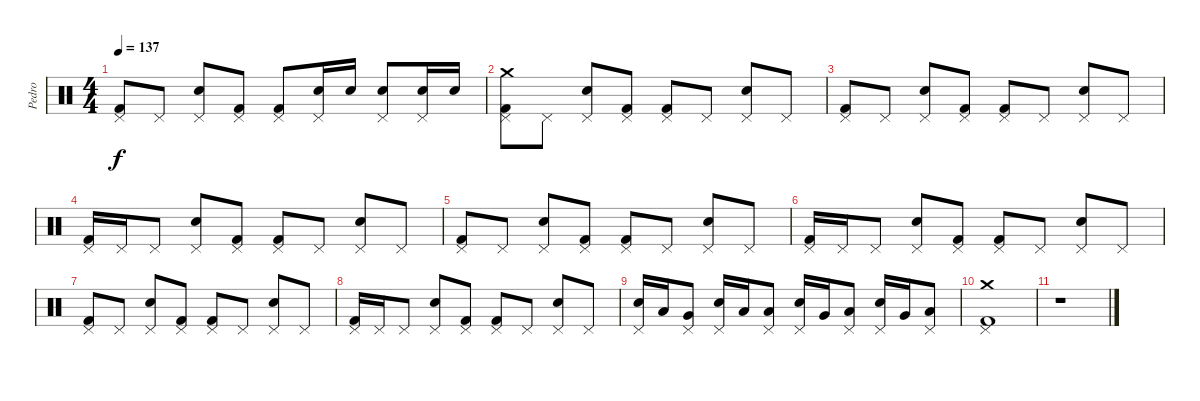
\track ("Pedro" "Pedro") {instrument percussion}
\staff {score}
\articulation defaults
\ts (4 4)
\tempo 137
\clef neutral
\ks c
("Kick (hit) 2" "Pedal Hi-Hat (hit)").8{dy f} "Pedal Hi-Hat (hit)".8 ("Snare (hit) 2" "Pedal Hi-Hat (hit)").8 ("Kick (hit) 2" "Pedal Hi-Hat (hit)").8 ("Kick (hit) 2" "Pedal Hi-Hat (hit)").8 ("Snare (hit) 2" "Pedal Hi-Hat (hit)").16 "Snare (hit) 2".16 ("Snare (hit) 2" "Pedal Hi-Hat (hit)").8 ("Snare (hit) 2" "Pedal Hi-Hat (hit)").16 "Snare (hit) 2".16 |
("Crash medium (hit)" "Pedal Hi-Hat (hit)" "Kick (hit) 2").8 "Pedal Hi-Hat (hit)".8 ("Pedal Hi-Hat (hit)" "Snare (hit) 2").8 ("Pedal Hi-Hat (hit)" "Kick (hit) 2").8 ("Pedal Hi-Hat (hit)" "Kick (hit) 2").8 "Pedal Hi-Hat (hit)".8 ("Pedal Hi-Hat (hit)" "Snare (hit) 2").8 "Pedal Hi-Hat (hit)".8 |
("Pedal Hi-Hat (hit)" "Kick (hit) 2").8 "Pedal Hi-Hat (hit)".8 ("Pedal Hi-Hat (hit)" "Snare (hit) 2").8 ("Pedal Hi-Hat (hit)" "Kick (hit) 2").8 ("Pedal Hi-Hat (hit)" "Kick (hit) 2").8 "Pedal Hi-Hat (hit)".8 ("Pedal Hi-Hat (hit)" "Snare (hit) 2").8 "Pedal Hi-Hat (hit)".8 |
("Pedal Hi-Hat (hit)" "Kick (hit) 2").16 "Pedal Hi-Hat (hit)".16 "Pedal Hi-Hat (hit)".8 ("Pedal Hi-Hat (hit)" "Snare (hit) 2").8 ("Pedal Hi-Hat (hit)" "Kick (hit) 2").8 ("Pedal Hi-Hat (hit)" "Kick (hit) 2").8 "Pedal Hi-Hat (hit)".8 ("Pedal Hi-Hat (hit)" "Snare (hit) 2").8 "Pedal Hi-Hat (hit)".8 |
("Pedal Hi-Hat (hit)" "Kick (hit) 2").8 "Pedal Hi-Hat (hit)".8 ("Pedal Hi-Hat (hit)" "Snare (hit) 2").8 ("Pedal Hi-Hat (hit)" "Kick (hit) 2").8 ("Pedal Hi-Hat (hit)" "Kick (hit) 2").8 "Pedal Hi-Hat (hit)".8 ("Pedal Hi-Hat (hit)" "Snare (hit) 2").8 "Pedal Hi-Hat (hit)".8 |
("Pedal Hi-Hat (hit)" "Kick (hit) 2").16 "Pedal Hi-Hat (hit)".16 "Pedal Hi-Hat (hit)".8 ("Pedal Hi-Hat (hit)" "Snare (hit) 2").8 ("Pedal Hi-Hat (hit)" "Kick (hit) 2").8 ("Pedal Hi-Hat (hit)" "Kick (hit) 2").8 "Pedal Hi-Hat (hit)".8 ("Pedal Hi-Hat (hit)" "Snare (hit) 2").8 "Pedal Hi-Hat (hit)".8 |
("Kick (hit) 2" "Pedal Hi-Hat (hit)").8 "Pedal Hi-Hat (hit)".8 ("Snare (hit) 2" "Pedal Hi-Hat (hit)").8 ("Kick (hit) 2" "Pedal Hi-Hat (hit)").8 ("Kick (hit) 2" "Pedal Hi-Hat (hit)").8 "Pedal Hi-Hat (hit)".8 ("Snare (hit) 2" "Pedal Hi-Hat (hit)").8 "Pedal Hi-Hat (hit)".8 |
("Pedal Hi-Hat (hit)" "Kick (hit) 2").16 "Pedal Hi-Hat (hit)".16 "Pedal Hi-Hat (hit)".8 ("Pedal Hi-Hat (hit)" "Snare (hit) 2").8 ("Pedal Hi-Hat (hit)" "Kick (hit) 2").8 ("Pedal Hi-Hat (hit)" "Kick (hit) 2").8 "Pedal Hi-Hat (hit)".8 ("Pedal Hi-Hat (hit)" "Snare (hit) 2").8 "Pedal Hi-Hat (hit)".8 |
("Snare (hit) 2" "Pedal Hi-Hat (hit)").16 "Low Tom (hit)".16 ("Very Low Tom (hit)" "Pedal Hi-Hat (hit)").8 ("Snare (hit) 2" "Pedal Hi-Hat (hit)").16 "Low Tom (hit)".16 ("Low Floor Tom (hit)" "Pedal Hi-Hat (hit)").8 ("Snare (hit) 2" "Pedal Hi-Hat (hit)").16 "Very Low Tom (hit)".16 ("Low Floor Tom (hit)" "Pedal Hi-Hat (hit)").8 ("Snare (hit) 2" "Pedal Hi-Hat (hit)").16 "Very Low Tom (hit)".16 ("Low Floor Tom (hit)" "Pedal Hi-Hat (hit)").8 |
("Pedal Hi-Hat (hit)" "Crash medium (hit)" "Kick (hit) 2").1 |
r.1
